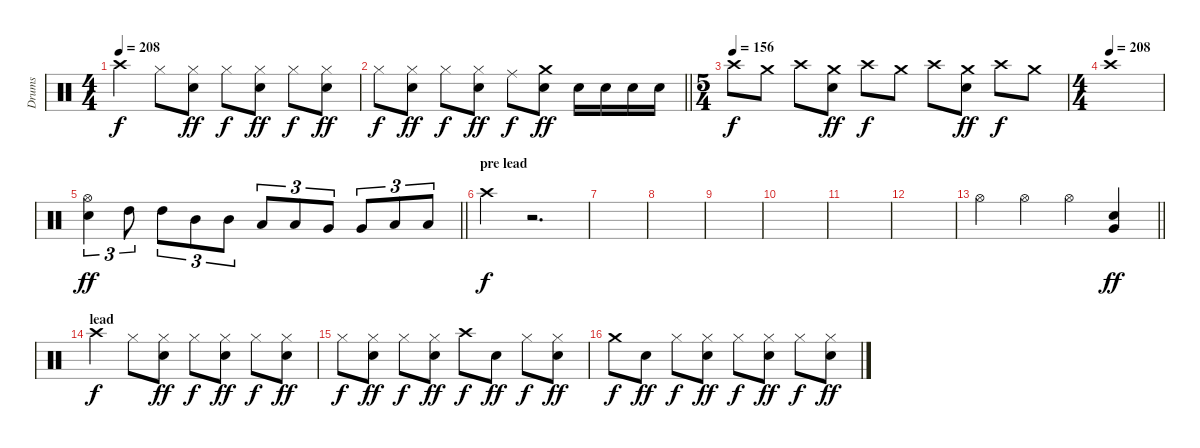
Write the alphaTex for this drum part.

\track ("Drums" "Drums") {instrument percussion}
\staff {score}
\articulation defaults
\ts (4 4)
\tempo 208
\clef neutral
\ks c "Crash high (hit)".4{dy f} "Hi-Hat (closed)".8
("Hi-Hat (closed)" "Snare (hit) 2").8{dy ff} "Hi-Hat (closed)".8{dy f} ("Hi-Hat (closed)" "Snare (hit) 2").8{dy ff} "Hi-Hat (closed)".8{dy f} ("Hi-Hat (closed)" "Snare (hit) 2").8{dy ff} |
\barLineRight lightlight "Hi-Hat (closed)".8{dy f}
("Hi-Hat (closed)" "Snare (hit) 2").8{dy ff} "Hi-Hat (closed)".8{dy f} ("Hi-Hat (closed)" "Snare (hit) 2").8{dy ff} "Ride (middle)".8{dy f} ("Crash medium (hit)" "Snare (hit) 2").8{dy ff} "Snare (hit) 2".16 "Snare (hit) 2".16 "Snare (hit) 2".16 "Snare (hit) 2".16 |
\ts (5 4)
\section ("" "")
\tempo (156)
"Crash high (hit)".8{dy f} "Crash medium (hit)".8 "Crash high (hit)".8 ("Crash medium (hit)" "Snare (hit) 2").8{dy ff} "Crash high (hit)".8{dy f} "Crash medium (hit)".8 "Crash high (hit)".8 ("Crash medium (hit)" "Snare (hit) 2").8{dy ff} "Crash high (hit)".8{dy f} "Crash medium (hit)".8 |
\ts (4 4)
\tempo (208)
"Crash high (hit)".1 |
\barLineRight lightlight
("Hi-Hat (open)" "Snare (hit) 2").4{tu (3 2) dy ff} "High Tom (hit)".8{tu (3 2)} "High Tom (hit)".8{tu (3 2)} "Mid Tom (hit)".8{tu (3 2)} "Mid Tom (hit)".8{tu (3 2)} "Low Tom (hit)".8{tu (3 2)} "Low Tom (hit)".8{tu (3 2)} "Very Low Tom (hit)".8{tu (3 2)} "Very Low Tom (hit)".8{tu (3 2)} "Low Floor Tom (hit)".8{tu (3 2)} "Low Floor Tom (hit)".8{tu (3 2)} |
\section ("" "pre lead")
"Crash high (hit)".4{dy f} r.2{d} |
|
|
|
|
|
|
\barLineRight lightlight "Hi-Hat (open)".4 "Hi-Hat (open)".4 "Hi-Hat (open)".4
("Snare (hit) 2" "Very Low Tom (hit)").4{dy ff} |
\section ("" "lead")
"Crash high (hit)".4{dy f} "Hi-Hat (closed)".8 ("Hi-Hat (closed)" "Snare (hit) 2").8{dy ff} "Hi-Hat (closed)".8{dy f} ("Hi-Hat (closed)" "Snare (hit) 2").8{dy ff} "Hi-Hat (closed)".8{dy f} ("Hi-Hat (closed)" "Snare (hit) 2").8{dy ff} |
"Hi-Hat (closed)".8{dy f} ("Hi-Hat (closed)" "Snare (hit) 2").8{dy ff} "Hi-Hat (closed)".8{dy f} ("Hi-Hat (closed)" "Snare (hit) 2").8{dy ff} "Crash high (hit)".8{dy f} "Snare (hit) 2".8{dy ff} "Hi-Hat (closed)".8{dy f} ("Hi-Hat (closed)" "Snare (hit) 2").8{dy ff} |
"Crash medium (hit)".8{dy f} "Snare (hit) 2".8{dy ff} "Hi-Hat (closed)".8{dy f} ("Hi-Hat (closed)" "Snare (hit) 2").8{dy ff} "Hi-Hat (closed)".8{dy f} ("Hi-Hat (closed)" "Snare (hit) 2").8{dy ff} "Hi-Hat (closed)".8{dy f} ("Hi-Hat (closed)" "Snare (hit) 2").8{dy ff}
